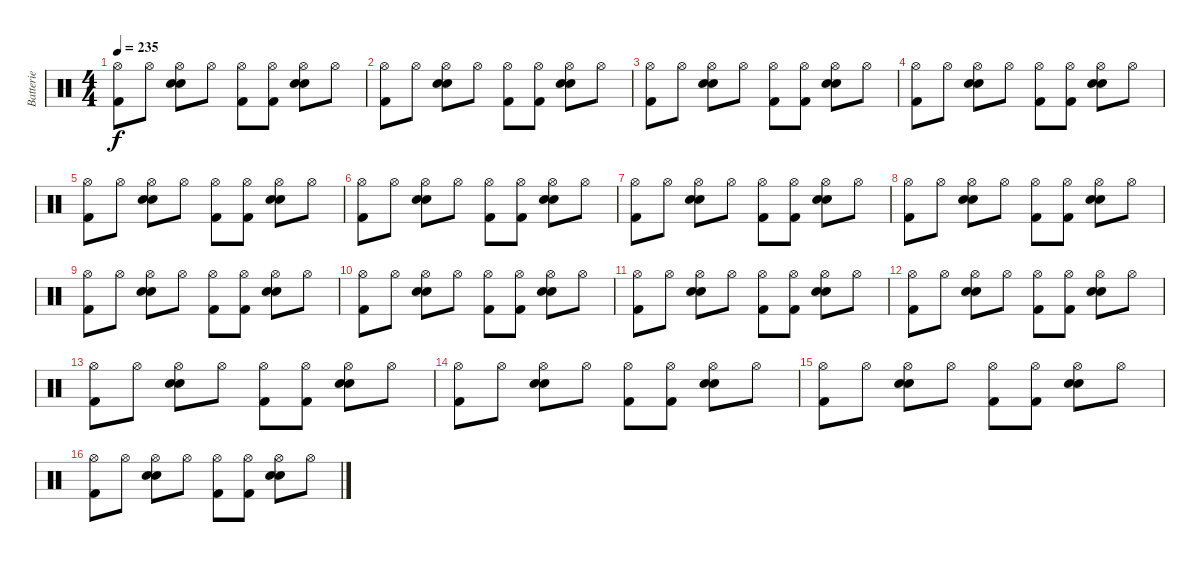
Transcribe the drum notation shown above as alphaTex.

\track ("Batterie" "Batterie") {instrument percussion}
\staff {score}
\articulation defaults
\ts (4 4)
\tempo 235
\clef neutral
\ks c
("Kick (hit) 2" "Hi-Hat (open)").8{dy f} "Hi-Hat (open)".8 ("Electric Snare (hit)" "Electric Snare (hit)" "Hi-Hat (open)").8 "Hi-Hat (open)".8 ("Kick (hit) 2" "Hi-Hat (open)").8 ("Kick (hit) 2" "Hi-Hat (open)").8 ("Electric Snare (hit)" "Electric Snare (hit)" "Hi-Hat (open)").8 "Hi-Hat (open)".8 |
("Kick (hit) 2" "Hi-Hat (open)").8 "Hi-Hat (open)".8 ("Electric Snare (hit)" "Electric Snare (hit)" "Hi-Hat (open)").8 "Hi-Hat (open)".8 ("Kick (hit) 2" "Hi-Hat (open)").8 ("Kick (hit) 2" "Hi-Hat (open)").8 ("Electric Snare (hit)" "Electric Snare (hit)" "Hi-Hat (open)").8 "Hi-Hat (open)".8 |
("Kick (hit) 2" "Hi-Hat (open)").8 "Hi-Hat (open)".8 ("Electric Snare (hit)" "Electric Snare (hit)" "Hi-Hat (open)").8 "Hi-Hat (open)".8 ("Kick (hit) 2" "Hi-Hat (open)").8 ("Kick (hit) 2" "Hi-Hat (open)").8 ("Electric Snare (hit)" "Electric Snare (hit)" "Hi-Hat (open)").8 "Hi-Hat (open)".8 |
("Kick (hit) 2" "Hi-Hat (open)").8 "Hi-Hat (open)".8 ("Electric Snare (hit)" "Electric Snare (hit)" "Hi-Hat (open)").8 "Hi-Hat (open)".8 ("Kick (hit) 2" "Hi-Hat (open)").8 ("Kick (hit) 2" "Hi-Hat (open)").8 ("Electric Snare (hit)" "Electric Snare (hit)" "Hi-Hat (open)").8 "Hi-Hat (open)".8 |
("Kick (hit) 2" "Hi-Hat (open)").8 "Hi-Hat (open)".8 ("Electric Snare (hit)" "Electric Snare (hit)" "Hi-Hat (open)").8 "Hi-Hat (open)".8 ("Kick (hit) 2" "Hi-Hat (open)").8 ("Kick (hit) 2" "Hi-Hat (open)").8 ("Electric Snare (hit)" "Electric Snare (hit)" "Hi-Hat (open)").8 "Hi-Hat (open)".8 |
("Kick (hit) 2" "Hi-Hat (open)").8 "Hi-Hat (open)".8 ("Electric Snare (hit)" "Electric Snare (hit)" "Hi-Hat (open)").8 "Hi-Hat (open)".8 ("Kick (hit) 2" "Hi-Hat (open)").8 ("Kick (hit) 2" "Hi-Hat (open)").8 ("Electric Snare (hit)" "Electric Snare (hit)" "Hi-Hat (open)").8 "Hi-Hat (open)".8 |
("Kick (hit) 2" "Hi-Hat (open)").8 "Hi-Hat (open)".8 ("Electric Snare (hit)" "Electric Snare (hit)" "Hi-Hat (open)").8 "Hi-Hat (open)".8 ("Kick (hit) 2" "Hi-Hat (open)").8 ("Kick (hit) 2" "Hi-Hat (open)").8 ("Electric Snare (hit)" "Electric Snare (hit)" "Hi-Hat (open)").8 "Hi-Hat (open)".8 |
("Kick (hit) 2" "Hi-Hat (open)").8 "Hi-Hat (open)".8 ("Electric Snare (hit)" "Electric Snare (hit)" "Hi-Hat (open)").8 "Hi-Hat (open)".8 ("Kick (hit) 2" "Hi-Hat (open)").8 ("Kick (hit) 2" "Hi-Hat (open)").8 ("Electric Snare (hit)" "Electric Snare (hit)" "Hi-Hat (open)").8 "Hi-Hat (open)".8 |
("Kick (hit) 2" "Hi-Hat (open)").8 "Hi-Hat (open)".8 ("Electric Snare (hit)" "Electric Snare (hit)" "Hi-Hat (open)").8 "Hi-Hat (open)".8 ("Kick (hit) 2" "Hi-Hat (open)").8 ("Kick (hit) 2" "Hi-Hat (open)").8 ("Electric Snare (hit)" "Electric Snare (hit)" "Hi-Hat (open)").8 "Hi-Hat (open)".8 |
("Kick (hit) 2" "Hi-Hat (open)").8 "Hi-Hat (open)".8 ("Electric Snare (hit)" "Electric Snare (hit)" "Hi-Hat (open)").8 "Hi-Hat (open)".8 ("Kick (hit) 2" "Hi-Hat (open)").8 ("Kick (hit) 2" "Hi-Hat (open)").8 ("Electric Snare (hit)" "Electric Snare (hit)" "Hi-Hat (open)").8 "Hi-Hat (open)".8 |
("Kick (hit) 2" "Hi-Hat (open)").8 "Hi-Hat (open)".8 ("Electric Snare (hit)" "Electric Snare (hit)" "Hi-Hat (open)").8 "Hi-Hat (open)".8 ("Kick (hit) 2" "Hi-Hat (open)").8 ("Kick (hit) 2" "Hi-Hat (open)").8 ("Electric Snare (hit)" "Electric Snare (hit)" "Hi-Hat (open)").8 "Hi-Hat (open)".8 |
("Kick (hit) 2" "Hi-Hat (open)").8 "Hi-Hat (open)".8 ("Electric Snare (hit)" "Electric Snare (hit)" "Hi-Hat (open)").8 "Hi-Hat (open)".8 ("Kick (hit) 2" "Hi-Hat (open)").8 ("Kick (hit) 2" "Hi-Hat (open)").8 ("Electric Snare (hit)" "Electric Snare (hit)" "Hi-Hat (open)").8 "Hi-Hat (open)".8 |
("Kick (hit) 2" "Hi-Hat (open)").8 "Hi-Hat (open)".8 ("Electric Snare (hit)" "Electric Snare (hit)" "Hi-Hat (open)").8 "Hi-Hat (open)".8 ("Kick (hit) 2" "Hi-Hat (open)").8 ("Kick (hit) 2" "Hi-Hat (open)").8 ("Electric Snare (hit)" "Electric Snare (hit)" "Hi-Hat (open)").8 "Hi-Hat (open)".8 |
("Kick (hit) 2" "Hi-Hat (open)").8 "Hi-Hat (open)".8 ("Electric Snare (hit)" "Electric Snare (hit)" "Hi-Hat (open)").8 "Hi-Hat (open)".8 ("Kick (hit) 2" "Hi-Hat (open)").8 ("Kick (hit) 2" "Hi-Hat (open)").8 ("Electric Snare (hit)" "Electric Snare (hit)" "Hi-Hat (open)").8 "Hi-Hat (open)".8 |
("Kick (hit) 2" "Hi-Hat (open)").8 "Hi-Hat (open)".8 ("Electric Snare (hit)" "Electric Snare (hit)" "Hi-Hat (open)").8 "Hi-Hat (open)".8 ("Kick (hit) 2" "Hi-Hat (open)").8 ("Kick (hit) 2" "Hi-Hat (open)").8 ("Electric Snare (hit)" "Electric Snare (hit)" "Hi-Hat (open)").8 "Hi-Hat (open)".8 |
("Kick (hit) 2" "Hi-Hat (open)").8 "Hi-Hat (open)".8 ("Electric Snare (hit)" "Electric Snare (hit)" "Hi-Hat (open)").8 "Hi-Hat (open)".8 ("Kick (hit) 2" "Hi-Hat (open)").8 ("Kick (hit) 2" "Hi-Hat (open)").8 ("Electric Snare (hit)" "Electric Snare (hit)" "Hi-Hat (open)").8 "Hi-Hat (open)".8
